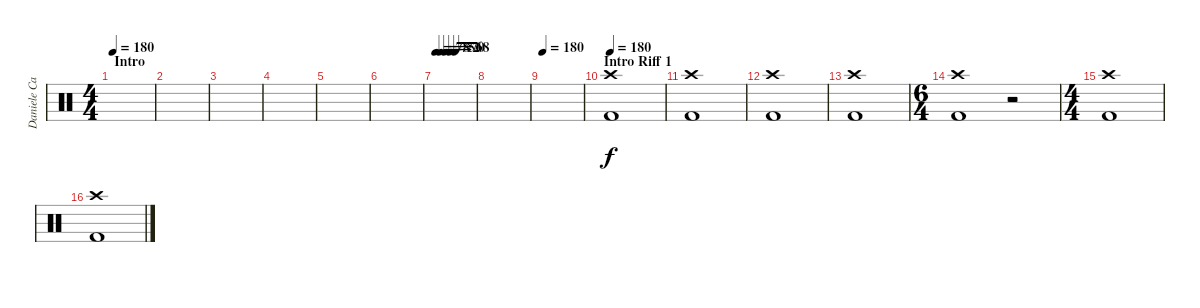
\track ("Daniele Carbonera " "Daniele Ca") {instrument percussion}
\staff {score}
\articulation defaults
\ts (4 4)
\section ("" "Intro")
\tempo 180
\tempo 80
\tempo 180
\clef neutral
\ks c
|
|
|
|
|
|
\tempo 78
\tempo (75 0.125)
\tempo (72 0.25)
\tempo (70 0.375)
\tempo (68 0.5)
|
|
\tempo 180
|
\section ("" "Intro Riff 1")
\tempo 180
("Crash high (hit)" "Kick (hit) 2").1 |
("Crash high (hit)" "Kick (hit) 2").1 |
("Crash high (hit)" "Kick (hit) 2").1 |
("Crash high (hit)" "Kick (hit) 2").1 |
\ts (6 4)
("Crash high (hit)" "Kick (hit) 2").1 r.2 |
\ts (4 4)
("Crash high (hit)" "Kick (hit) 2").1 |
("Crash high (hit)" "Kick (hit) 2").1
